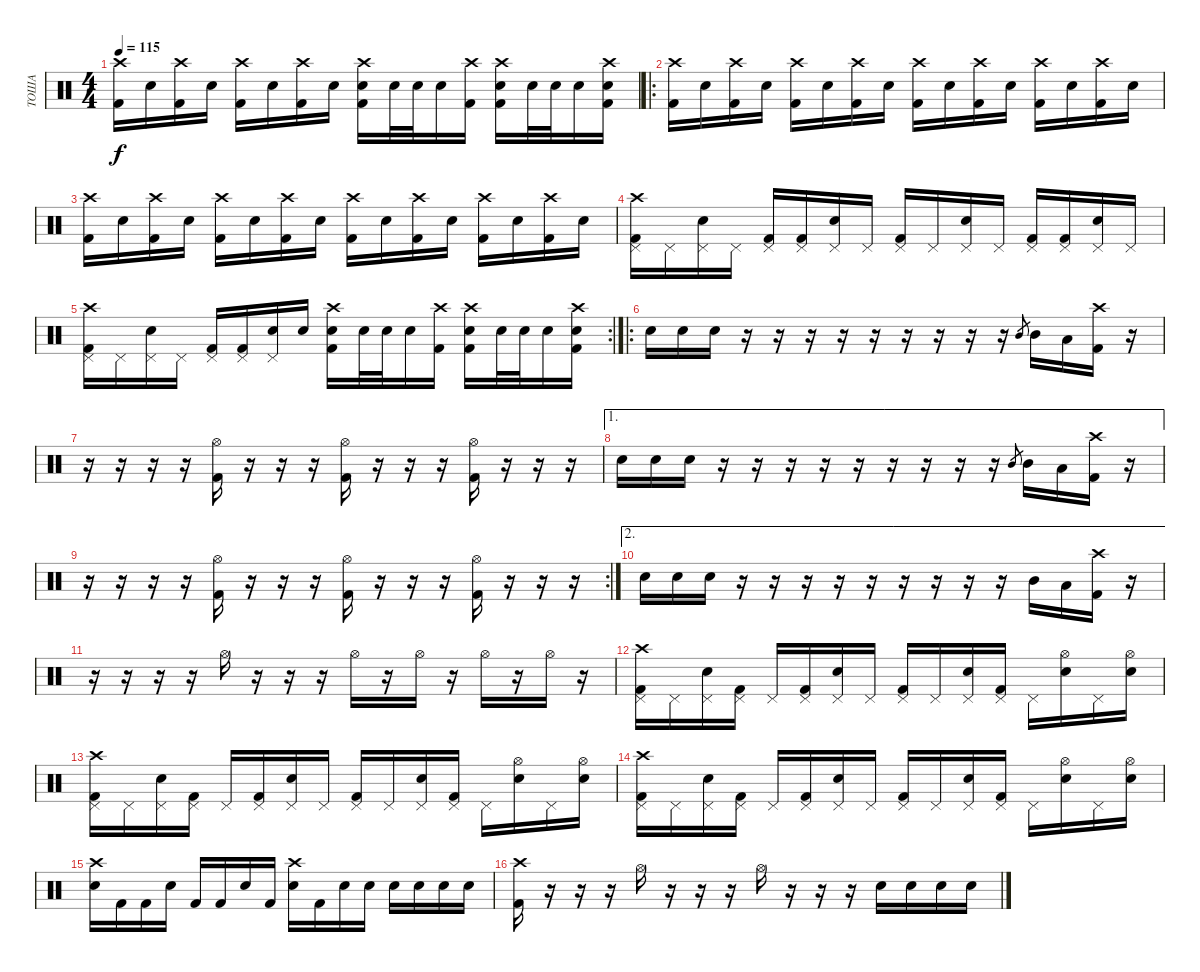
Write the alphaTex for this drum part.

\track ("ТОША" "ТОША") {instrument percussion}
\staff {score}
\articulation defaults
\ts (4 4)
\tempo 115
\clef neutral
\ks c
("Crash high (hit)" "Kick (hit) 2").16{dy f} "Electric Snare (hit)".16 ("Crash high (hit)" "Kick (hit) 2").16 "Electric Snare (hit)".16 ("Crash high (hit)" "Kick (hit) 2").16 "Electric Snare (hit)".16 ("Crash high (hit)" "Kick (hit) 2").16 "Electric Snare (hit)".16 ("Crash high (hit)" "Electric Snare (hit)" "Kick (hit) 2").16 "Electric Snare (hit)".32 "Electric Snare (hit)".32 "Electric Snare (hit)".16 ("Crash high (hit)" "Kick (hit) 2").16 ("Crash high (hit)" "Electric Snare (hit)" "Kick (hit) 2").16 "Electric Snare (hit)".32 "Electric Snare (hit)".32 "Electric Snare (hit)".16 ("Crash high (hit)" "Electric Snare (hit)" "Kick (hit) 2").16 |
\ro
("Crash high (hit)" "Kick (hit) 2").16 "Electric Snare (hit)".16 ("Crash high (hit)" "Kick (hit) 2").16 "Electric Snare (hit)".16 ("Crash high (hit)" "Kick (hit) 2").16 "Electric Snare (hit)".16 ("Crash high (hit)" "Kick (hit) 2").16 "Electric Snare (hit)".16 ("Crash high (hit)" "Kick (hit) 2").16 "Electric Snare (hit)".16 ("Crash high (hit)" "Kick (hit) 2").16 "Electric Snare (hit)".16 ("Crash high (hit)" "Kick (hit) 2").16 "Electric Snare (hit)".16 ("Crash high (hit)" "Kick (hit) 2").16 "Electric Snare (hit)".16 |
("Crash high (hit)" "Kick (hit) 2").16 "Electric Snare (hit)".16 ("Crash high (hit)" "Kick (hit) 2").16 "Electric Snare (hit)".16 ("Crash high (hit)" "Kick (hit) 2").16 "Electric Snare (hit)".16 ("Crash high (hit)" "Kick (hit) 2").16 "Electric Snare (hit)".16 ("Crash high (hit)" "Kick (hit) 2").16 "Electric Snare (hit)".16 ("Crash high (hit)" "Kick (hit) 2").16 "Electric Snare (hit)".16 ("Crash high (hit)" "Kick (hit) 2").16 "Electric Snare (hit)".16 ("Crash high (hit)" "Kick (hit) 2").16 "Electric Snare (hit)".16 |
("Pedal Hi-Hat (hit)" "Crash high (hit)" "Kick (hit) 2").16 "Pedal Hi-Hat (hit)".16 ("Pedal Hi-Hat (hit)" "Electric Snare (hit)").16 "Pedal Hi-Hat (hit)".16 ("Pedal Hi-Hat (hit)" "Kick (hit) 2").16 ("Pedal Hi-Hat (hit)" "Kick (hit) 2").16 ("Pedal Hi-Hat (hit)" "Electric Snare (hit)").16 "Pedal Hi-Hat (hit)".16 ("Pedal Hi-Hat (hit)" "Kick (hit) 2").16 "Pedal Hi-Hat (hit)".16 ("Pedal Hi-Hat (hit)" "Electric Snare (hit)").16 "Pedal Hi-Hat (hit)".16 ("Pedal Hi-Hat (hit)" "Kick (hit) 2").16 ("Pedal Hi-Hat (hit)" "Kick (hit) 2").16 ("Pedal Hi-Hat (hit)" "Electric Snare (hit)").16 "Pedal Hi-Hat (hit)".16 |
\rc 2
("Crash high (hit)" "Pedal Hi-Hat (hit)" "Kick (hit) 2").16 "Pedal Hi-Hat (hit)".16 ("Pedal Hi-Hat (hit)" "Electric Snare (hit)").16 "Pedal Hi-Hat (hit)".16 ("Pedal Hi-Hat (hit)" "Kick (hit) 2").16 ("Pedal Hi-Hat (hit)" "Kick (hit) 2").16 ("Pedal Hi-Hat (hit)" "Electric Snare (hit)").16 "Electric Snare (hit)".16 ("Crash high (hit)" "Electric Snare (hit)" "Kick (hit) 2").16 "Electric Snare (hit)".32 "Electric Snare (hit)".32 "Electric Snare (hit)".16 ("Crash high (hit)" "Kick (hit) 2").16 ("Crash high (hit)" "Electric Snare (hit)" "Kick (hit) 2").16 "Electric Snare (hit)".32 "Electric Snare (hit)".32 "Electric Snare (hit)".16 ("Crash high (hit)" "Electric Snare (hit)" "Kick (hit) 2").16 |
\ro "Electric Snare (hit)".16 "Electric Snare (hit)".16 "Electric Snare (hit)".16
r.16 r.16 r.16 r.16 r.16 r.16 r.16 r.16 r.16 "Mid Tom (hit)".8{gr} "Mid Tom (hit)".16 "Low Tom (hit)".16 ("Crash high (hit)" "Kick (hit) 2").16 r.16 |
r.16 r.16 r.16 r.16 ("Hi-Hat (open)" "Kick (hit) 2").16 r.16 r.16 r.16 ("Hi-Hat (open)" "Kick (hit) 2").16 r.16 r.16 r.16 ("Hi-Hat (open)" "Kick (hit) 2").16 r.16 r.16 r.16 |
\ae 1 "Electric Snare (hit)".16 "Electric Snare (hit)".16 "Electric Snare (hit)".16
r.16 r.16 r.16 r.16 r.16 r.16 r.16 r.16 r.16 "Mid Tom (hit)".8{gr} "Mid Tom (hit)".16 "Low Tom (hit)".16 ("Crash high (hit)" "Kick (hit) 2").16 r.16 |
\rc 2
r.16 r.16 r.16 r.16 ("Hi-Hat (open)" "Kick (hit) 2").16 r.16 r.16 r.16 ("Hi-Hat (open)" "Kick (hit) 2").16 r.16 r.16 r.16 ("Hi-Hat (open)" "Kick (hit) 2").16 r.16 r.16 r.16 |
\ae 2 "Electric Snare (hit)".16 "Electric Snare (hit)".16 "Electric Snare (hit)".16
r.16 r.16 r.16 r.16 r.16 r.16 r.16 r.16 r.16 "Mid Tom (hit)".16 "Low Tom (hit)".16 ("Crash high (hit)" "Kick (hit) 2").16 r.16 |
r.16 r.16 r.16 r.16 "Hi-Hat (open)".16 r.16 r.16 r.16 "Hi-Hat (open)".16 r.16 "Hi-Hat (open)".16 r.16 "Hi-Hat (open)".16 r.16 "Hi-Hat (open)".16 r.16 |
("Pedal Hi-Hat (hit)" "Crash high (hit)" "Kick (hit) 2").16 "Pedal Hi-Hat (hit)".16 ("Pedal Hi-Hat (hit)" "Electric Snare (hit)").16 ("Pedal Hi-Hat (hit)" "Kick (hit) 2").16 "Pedal Hi-Hat (hit)".16 ("Pedal Hi-Hat (hit)" "Kick (hit) 2").16 ("Pedal Hi-Hat (hit)" "Electric Snare (hit)").16 "Pedal Hi-Hat (hit)".16 ("Pedal Hi-Hat (hit)" "Kick (hit) 2").16 "Pedal Hi-Hat (hit)".16 ("Pedal Hi-Hat (hit)" "Electric Snare (hit)").16 ("Pedal Hi-Hat (hit)" "Kick (hit) 2").16 "Pedal Hi-Hat (hit)".16 ("Hi-Hat (open)" "Electric Snare (hit)").16 "Pedal Hi-Hat (hit)".16 ("Hi-Hat (open)" "Electric Snare (hit)").16 |
("Pedal Hi-Hat (hit)" "Crash high (hit)" "Kick (hit) 2").16 "Pedal Hi-Hat (hit)".16 ("Pedal Hi-Hat (hit)" "Electric Snare (hit)").16 ("Pedal Hi-Hat (hit)" "Kick (hit) 2").16 "Pedal Hi-Hat (hit)".16 ("Pedal Hi-Hat (hit)" "Kick (hit) 2").16 ("Pedal Hi-Hat (hit)" "Electric Snare (hit)").16 "Pedal Hi-Hat (hit)".16 ("Pedal Hi-Hat (hit)" "Kick (hit) 2").16 "Pedal Hi-Hat (hit)".16 ("Pedal Hi-Hat (hit)" "Electric Snare (hit)").16 ("Pedal Hi-Hat (hit)" "Kick (hit) 2").16 "Pedal Hi-Hat (hit)".16 ("Hi-Hat (open)" "Electric Snare (hit)").16 "Pedal Hi-Hat (hit)".16 ("Hi-Hat (open)" "Electric Snare (hit)").16 |
("Pedal Hi-Hat (hit)" "Crash high (hit)" "Kick (hit) 2").16 "Pedal Hi-Hat (hit)".16 ("Pedal Hi-Hat (hit)" "Electric Snare (hit)").16 ("Pedal Hi-Hat (hit)" "Kick (hit) 2").16 "Pedal Hi-Hat (hit)".16 ("Pedal Hi-Hat (hit)" "Kick (hit) 2").16 ("Pedal Hi-Hat (hit)" "Electric Snare (hit)").16 "Pedal Hi-Hat (hit)".16 ("Pedal Hi-Hat (hit)" "Kick (hit) 2").16 "Pedal Hi-Hat (hit)".16 ("Pedal Hi-Hat (hit)" "Electric Snare (hit)").16 ("Pedal Hi-Hat (hit)" "Kick (hit) 2").16 "Pedal Hi-Hat (hit)".16 ("Hi-Hat (open)" "Electric Snare (hit)").16 "Pedal Hi-Hat (hit)".16 ("Hi-Hat (open)" "Electric Snare (hit)").16 |
("Crash high (hit)" "Electric Snare (hit)").16 "Kick (hit) 2".16 "Kick (hit) 2".16 "Electric Snare (hit)".16 "Kick (hit) 2".16 "Kick (hit) 2".16 "Electric Snare (hit)".16 "Kick (hit) 2".16 ("Crash high (hit)" "Electric Snare (hit)").16 "Kick (hit) 2".16 "Electric Snare (hit)".16 "Electric Snare (hit)".16 "Electric Snare (hit)".16 "Electric Snare (hit)".16 "Electric Snare (hit)".16 "Electric Snare (hit)".16 |
("Crash high (hit)" "Kick (hit) 2").16 r.16 r.16 r.16 "Hi-Hat (open)".16 r.16 r.16 r.16 "Hi-Hat (open)".16 r.16 r.16 r.16 "Electric Snare (hit)".16 "Electric Snare (hit)".16 "Electric Snare (hit)".16 "Electric Snare (hit)".16
